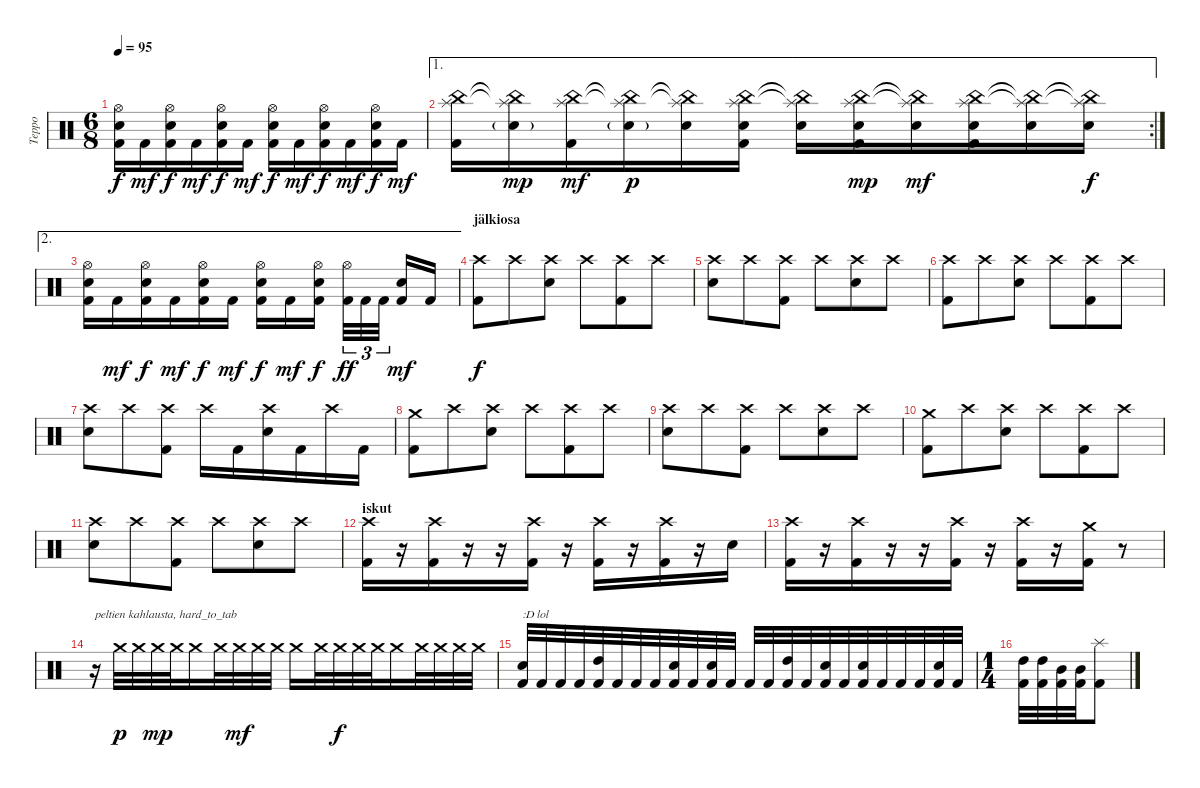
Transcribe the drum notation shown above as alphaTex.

\track ("Teppo" "Teppo") {instrument percussion}
\staff {score}
\articulation defaults
\ts (6 8)
\tempo 95
\clef neutral
\ks c
("Hi-Hat (open)" "Electric Snare (hit)" "Kick (hit) 2").16{dy f} "Kick (hit) 2".16{dy mf} ("Hi-Hat (open)" "Electric Snare (hit)" "Kick (hit) 2").16{dy f} "Kick (hit) 2".16{dy mf} ("Hi-Hat (open)" "Electric Snare (hit)" "Kick (hit) 2").16{dy f} "Kick (hit) 2".16{dy mf} ("Hi-Hat (open)" "Electric Snare (hit)" "Kick (hit) 2").16{dy f} "Kick (hit) 2".16{dy mf} ("Hi-Hat (open)" "Electric Snare (hit)" "Kick (hit) 2").16{dy f} "Kick (hit) 2".16{dy mf} ("Hi-Hat (open)" "Electric Snare (hit)" "Kick (hit) 2").16{dy f} "Kick (hit) 2".16{dy mf} |
\ae 1
\rc 2
("China (hit)" "Splash (hit)" "Kick (hit) 2").16 ("China (hit)"{t} "Splash (hit)"{t} "Electric Snare (hit)"{g}).16{dy mp} ("China (hit)" "Splash (hit)" "Kick (hit) 2").16{dy mf} ("China (hit)"{t} "Splash (hit)"{t} "Electric Snare (hit)"{g}).16{dy p} ("China (hit)"{t} "Splash (hit)"{t} "Electric Snare (hit)").16 ("China (hit)" "Splash (hit)" "Electric Snare (hit)" "Kick (hit) 2").16 ("China (hit)"{t} "Splash (hit)"{t} "Electric Snare (hit)").16 ("China (hit)" "Splash (hit)" "Electric Snare (hit)" "Kick (hit) 2").16{dy mp} ("China (hit)"{t} "Splash (hit)"{t} "Electric Snare (hit)").16{dy mf} ("China (hit)" "Splash (hit)" "Electric Snare (hit)" "Kick (hit) 2").16 ("China (hit)"{t} "Splash (hit)"{t} "Electric Snare (hit)").16 ("China (hit)"{t} "Splash (hit)"{t} "Electric Snare (hit)").16{dy f} |
\ae 2
("Hi-Hat (open)" "Electric Snare (hit)" "Kick (hit) 2").16 "Kick (hit) 2".16{dy mf} ("Hi-Hat (open)" "Electric Snare (hit)" "Kick (hit) 2").16{dy f} "Kick (hit) 2".16{dy mf} ("Hi-Hat (open)" "Electric Snare (hit)" "Kick (hit) 2").16{dy f} "Kick (hit) 2".16{dy mf} ("Hi-Hat (open)" "Electric Snare (hit)" "Kick (hit) 2").16{dy f} "Kick (hit) 2".16{dy mf} ("Hi-Hat (open)" "Electric Snare (hit)" "Kick (hit) 2").16{dy f} ("Hi-Hat (open)" "Kick (hit) 2").32{tu (3 2) dy ff} "Kick (hit) 2".32{tu (3 2)} "Kick (hit) 2".32{tu (3 2)} ("Electric Snare (hit)" "Kick (hit) 2").16{dy mf} "Kick (hit) 2".16 |
\section ("" "jälkiosa")
("Crash high (hit)" "Kick (hit) 2").8{dy f} "Crash high (hit)".8 ("Crash high (hit)" "Electric Snare (hit)").8 "Crash high (hit)".8 ("Crash high (hit)" "Kick (hit) 2").8 "Crash high (hit)".8 |
("Crash high (hit)" "Electric Snare (hit)").8 "Crash high (hit)".8 ("Crash high (hit)" "Kick (hit) 2").8 "Crash high (hit)".8 ("Crash high (hit)" "Electric Snare (hit)").8 "Crash high (hit)".8 |
("Crash high (hit)" "Kick (hit) 2").8 "Crash high (hit)".8 ("Crash high (hit)" "Electric Snare (hit)").8 "Crash high (hit)".8 ("Crash high (hit)" "Kick (hit) 2").8 "Crash high (hit)".8 |
("Crash high (hit)" "Electric Snare (hit)").8 "Crash high (hit)".8 ("Crash high (hit)" "Kick (hit) 2").8 "Crash high (hit)".16 "Kick (hit) 2".16 ("Crash high (hit)" "Electric Snare (hit)").16 "Kick (hit) 2".16 "Crash high (hit)".16 "Kick (hit) 2".16 |
("Crash medium (hit)" "Kick (hit) 2").8 "Crash high (hit)".8 ("Crash high (hit)" "Electric Snare (hit)").8 "Crash high (hit)".8 ("Crash high (hit)" "Kick (hit) 2").8 "Crash high (hit)".8 |
("Crash high (hit)" "Electric Snare (hit)").8 "Crash high (hit)".8 ("Crash high (hit)" "Kick (hit) 2").8 "Crash high (hit)".8 ("Crash high (hit)" "Electric Snare (hit)").8 "Crash high (hit)".8 |
("Crash medium (hit)" "Kick (hit) 2").8 "Crash high (hit)".8 ("Crash high (hit)" "Electric Snare (hit)").8 "Crash high (hit)".8 ("Crash high (hit)" "Kick (hit) 2").8 "Crash high (hit)".8 |
("Crash high (hit)" "Electric Snare (hit)").8 "Crash high (hit)".8 ("Crash high (hit)" "Kick (hit) 2").8 "Crash high (hit)".8 ("Crash high (hit)" "Electric Snare (hit)").8 "Crash high (hit)".8 |
\section ("" "iskut")
("Crash high (hit)"{pm} "Kick (hit) 2").16 r.16 ("Crash high (hit)"{pm} "Kick (hit) 2").16 r.16 r.16 ("Crash high (hit)"{pm} "Kick (hit) 2").16 r.16 ("Crash high (hit)"{pm} "Kick (hit) 2").16 r.16 ("Crash high (hit)"{pm} "Kick (hit) 2").16 r.16 "Electric Snare (hit)".16 |
("Crash high (hit)"{pm} "Kick (hit) 2").16 r.16 ("Crash high (hit)"{pm} "Kick (hit) 2").16 r.16 r.16 ("Crash high (hit)"{pm} "Kick (hit) 2").16 r.16 ("Crash high (hit)"{pm} "Kick (hit) 2").16 r.16 ("Crash medium (hit)"{pm} "Kick (hit) 2").16 r.8 |
r.16{txt "peltien kahlausta, hard_to_tab"} "Crash medium (hit)".32{dy p} "Crash medium (hit)".32 "Crash medium (hit)".32{dy mp} "Crash medium (hit)".32 "Crash medium (hit)".16 "Crash medium (hit)".32 "Crash medium (hit)".32{dy mf} "Crash medium (hit)".32 "Crash medium (hit)".32 "Crash medium (hit)".16 "Crash medium (hit)".32 "Crash medium (hit)".32{dy f} "Crash medium (hit)".32 "Crash medium (hit)".32 "Crash medium (hit)".16 "Crash medium (hit)".32 "Crash medium (hit)".32 "Crash medium (hit)".32 "Crash medium (hit)".32 |
("Electric Snare (hit)" "Kick (hit) 2").32{txt ":D lol"} "Kick (hit) 2".32 "Kick (hit) 2".32 "Kick (hit) 2".32 ("High Tom (hit)" "Kick (hit) 2").32 "Kick (hit) 2".32 "Kick (hit) 2".32 "Kick (hit) 2".32 ("Electric Snare (hit)" "Kick (hit) 2").32 "Kick (hit) 2".32 ("Electric Snare (hit)" "Kick (hit) 2").32 "Kick (hit) 2".32 "Kick (hit) 2".32 "Kick (hit) 2".32 ("High Tom (hit)" "Kick (hit) 2").32 "Kick (hit) 2".32 ("Electric Snare (hit)" "Kick (hit) 2").32 "Kick (hit) 2".32 ("Electric Snare (hit)" "Kick (hit) 2").32 "Kick (hit) 2".32 "Kick (hit) 2".32 "Kick (hit) 2".32 ("Electric Snare (hit)" "Kick (hit) 2").32 "Kick (hit) 2".32 |
\ts (1 4)
("High Tom (hit)" "Kick (hit) 2").32 ("High Tom (hit)" "Kick (hit) 2").32 ("Mid Tom (hit)" "Kick (hit) 2").32 ("Mid Tom (hit)" "Kick (hit) 2").32 ("Splash (hit)" "Kick (hit) 2").8
